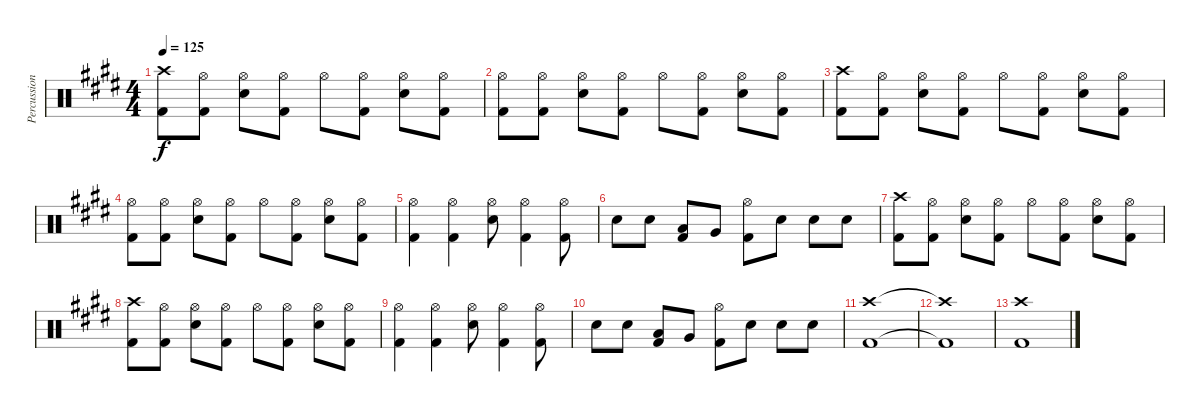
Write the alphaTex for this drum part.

\track ("Percussion" "Percussion") {instrument percussion}
\staff {score}
\articulation defaults
\ts (4 4)
\tempo 125
\clef neutral
\ks e
("Crash high (hit)" "Kick (hit) 2").8{dy f} ("Hi-Hat (open)" "Kick (hit) 2").8 ("Hi-Hat (open)" "Electric Snare (hit)").8 ("Hi-Hat (open)" "Kick (hit) 2").8 "Hi-Hat (open)".8 ("Hi-Hat (open)" "Kick (hit) 2").8 ("Hi-Hat (open)" "Electric Snare (hit)").8 ("Hi-Hat (open)" "Kick (hit) 2").8 |
("Hi-Hat (open)" "Kick (hit) 2").8 ("Hi-Hat (open)" "Kick (hit) 2").8 ("Hi-Hat (open)" "Electric Snare (hit)").8 ("Hi-Hat (open)" "Kick (hit) 2").8 "Hi-Hat (open)".8 ("Hi-Hat (open)" "Kick (hit) 2").8 ("Hi-Hat (open)" "Electric Snare (hit)").8 ("Hi-Hat (open)" "Kick (hit) 2").8 |
("Crash high (hit)" "Kick (hit) 2").8 ("Hi-Hat (open)" "Kick (hit) 2").8 ("Hi-Hat (open)" "Electric Snare (hit)").8 ("Hi-Hat (open)" "Kick (hit) 2").8 "Hi-Hat (open)".8 ("Hi-Hat (open)" "Kick (hit) 2").8 ("Hi-Hat (open)" "Electric Snare (hit)").8 ("Hi-Hat (open)" "Kick (hit) 2").8 |
("Hi-Hat (open)" "Kick (hit) 2").8 ("Hi-Hat (open)" "Kick (hit) 2").8 ("Hi-Hat (open)" "Electric Snare (hit)").8 ("Hi-Hat (open)" "Kick (hit) 2").8 "Hi-Hat (open)".8 ("Hi-Hat (open)" "Kick (hit) 2").8 ("Hi-Hat (open)" "Electric Snare (hit)").8 ("Hi-Hat (open)" "Kick (hit) 2").8 |
("Hi-Hat (open)" "Kick (hit) 2").4 ("Hi-Hat (open)" "Kick (hit) 2").4 ("Hi-Hat (open)" "Electric Snare (hit)").8 ("Hi-Hat (open)" "Kick (hit) 2").4 ("Hi-Hat (open)" "Kick (hit) 2").8 |
"Electric Snare (hit)".8 "Electric Snare (hit)".8 ("Low Tom (hit)" "Kick (hit) 2").8 "Very Low Tom (hit)".8 ("Hi-Hat (open)" "Kick (hit) 2").8 "Electric Snare (hit)".8 "Electric Snare (hit)".8 "Electric Snare (hit)".8 |
("Crash high (hit)" "Kick (hit) 2").8 ("Hi-Hat (open)" "Kick (hit) 2").8 ("Hi-Hat (open)" "Electric Snare (hit)").8 ("Hi-Hat (open)" "Kick (hit) 2").8 "Hi-Hat (open)".8 ("Hi-Hat (open)" "Kick (hit) 2").8 ("Hi-Hat (open)" "Electric Snare (hit)").8 ("Hi-Hat (open)" "Kick (hit) 2").8 |
("Crash high (hit)" "Kick (hit) 2").8 ("Hi-Hat (open)" "Kick (hit) 2").8 ("Hi-Hat (open)" "Electric Snare (hit)").8 ("Hi-Hat (open)" "Kick (hit) 2").8 "Hi-Hat (open)".8 ("Hi-Hat (open)" "Kick (hit) 2").8 ("Hi-Hat (open)" "Electric Snare (hit)").8 ("Hi-Hat (open)" "Kick (hit) 2").8 |
("Hi-Hat (open)" "Kick (hit) 2").4 ("Hi-Hat (open)" "Kick (hit) 2").4 ("Hi-Hat (open)" "Electric Snare (hit)").8 ("Hi-Hat (open)" "Kick (hit) 2").4 ("Hi-Hat (open)" "Kick (hit) 2").8 |
"Electric Snare (hit)".8 "Electric Snare (hit)".8 ("Low Tom (hit)" "Kick (hit) 2").8 "Very Low Tom (hit)".8 ("Hi-Hat (open)" "Kick (hit) 2").8 "Electric Snare (hit)".8 "Electric Snare (hit)".8 "Electric Snare (hit)".8 |
("Crash high (hit)" "Kick (hit) 2").1 |
("Crash high (hit)"{t} "Kick (hit) 2"{t}).1 |
("Crash high (hit)" "Kick (hit) 2").1
